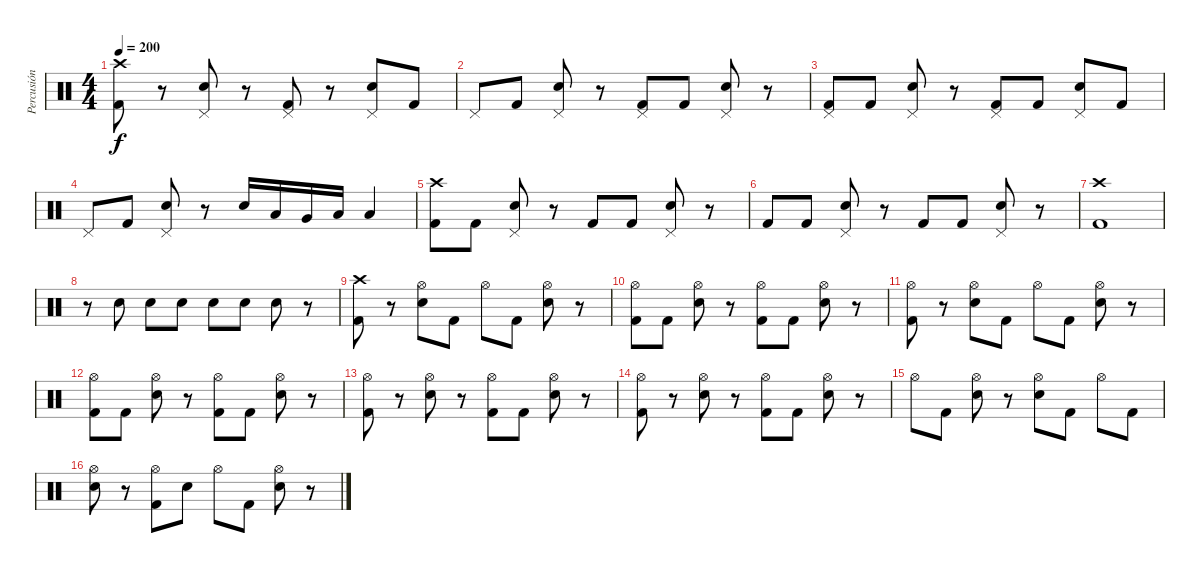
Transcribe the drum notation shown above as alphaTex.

\track ("Percusión" "Percusión") {instrument percussion}
\staff {score}
\articulation defaults
\ts (4 4)
\tempo 200
\clef neutral
\ks c
("Kick (hit) 2" "Crash high (hit)").8{dy f} r.8 ("Snare (hit) 2" "Pedal Hi-Hat (hit)").8 r.8 ("Kick (hit) 2" "Pedal Hi-Hat (hit)").8 r.8 ("Snare (hit) 2" "Pedal Hi-Hat (hit)").8 "Kick (hit) 2".8 |
"Pedal Hi-Hat (hit)".8 "Kick (hit) 2".8 ("Snare (hit) 2" "Pedal Hi-Hat (hit)").8 r.8 ("Kick (hit) 2" "Pedal Hi-Hat (hit)").8 "Kick (hit) 2".8 ("Snare (hit) 2" "Pedal Hi-Hat (hit)").8 r.8 |
("Kick (hit) 2" "Pedal Hi-Hat (hit)").8 "Kick (hit) 2".8 ("Snare (hit) 2" "Pedal Hi-Hat (hit)").8 r.8 ("Kick (hit) 2" "Pedal Hi-Hat (hit)").8 "Kick (hit) 2".8 ("Snare (hit) 2" "Pedal Hi-Hat (hit)").8 "Kick (hit) 2".8 |
"Pedal Hi-Hat (hit)".8 "Kick (hit) 2".8 ("Snare (hit) 2" "Pedal Hi-Hat (hit)").8 r.8 "Snare (hit) 2".16 "Low Tom (hit)".16 "Very Low Tom (hit)".16 "Low Floor Tom (hit)".16 "Low Floor Tom (hit)".4 |
("Kick (hit) 2" "Crash high (hit)").8 "Kick (hit) 2".8 ("Snare (hit) 2" "Pedal Hi-Hat (hit)").8 r.8 "Kick (hit) 2".8 "Kick (hit) 2".8 ("Snare (hit) 2" "Pedal Hi-Hat (hit)").8 r.8 |
"Kick (hit) 2".8 "Kick (hit) 2".8 ("Snare (hit) 2" "Pedal Hi-Hat (hit)").8 r.8 "Kick (hit) 2".8 "Kick (hit) 2".8 ("Snare (hit) 2" "Pedal Hi-Hat (hit)").8 r.8 |
("Kick (hit) 2" "Crash high (hit)").1 |
r.8 "Snare (hit) 2".8 "Snare (hit) 2".8 "Snare (hit) 2".8 "Snare (hit) 2".8 "Snare (hit) 2".8 "Snare (hit) 2".8 r.8 |
("Kick (hit) 2" "Crash high (hit)").8 r.8 ("Snare (hit) 2" "Hi-Hat (open)").8 "Kick (hit) 2".8 "Hi-Hat (open)".8 "Kick (hit) 2".8 ("Snare (hit) 2" "Hi-Hat (open)").8 r.8 |
("Kick (hit) 2" "Hi-Hat (open)").8 "Kick (hit) 2".8 ("Snare (hit) 2" "Hi-Hat (open)").8 r.8 ("Kick (hit) 2" "Hi-Hat (open)").8 "Kick (hit) 2".8 ("Snare (hit) 2" "Hi-Hat (open)").8 r.8 |
("Kick (hit) 2" "Hi-Hat (open)").8 r.8 ("Snare (hit) 2" "Hi-Hat (open)").8 "Kick (hit) 2".8 "Hi-Hat (open)".8 "Kick (hit) 2".8 ("Snare (hit) 2" "Hi-Hat (open)").8 r.8 |
("Kick (hit) 2" "Hi-Hat (open)").8 "Kick (hit) 2".8 ("Snare (hit) 2" "Hi-Hat (open)").8 r.8 ("Kick (hit) 2" "Hi-Hat (open)").8 "Kick (hit) 2".8 ("Snare (hit) 2" "Hi-Hat (open)").8 r.8 |
("Kick (hit) 2" "Hi-Hat (open)").8 r.8 ("Snare (hit) 2" "Hi-Hat (open)").8 r.8 ("Kick (hit) 2" "Hi-Hat (open)").8 "Kick (hit) 2".8 ("Snare (hit) 2" "Hi-Hat (open)").8 r.8 |
("Kick (hit) 2" "Hi-Hat (open)").8 r.8 ("Snare (hit) 2" "Hi-Hat (open)").8 r.8 ("Kick (hit) 2" "Hi-Hat (open)").8 "Kick (hit) 2".8 ("Snare (hit) 2" "Hi-Hat (open)").8 r.8 |
"Hi-Hat (open)".8 "Kick (hit) 2".8 ("Snare (hit) 2" "Hi-Hat (open)").8 r.8 ("Snare (hit) 2" "Hi-Hat (open)").8 "Kick (hit) 2".8 "Hi-Hat (open)".8 "Kick (hit) 2".8 |
("Snare (hit) 2" "Hi-Hat (open)").8 r.8 ("Kick (hit) 2" "Hi-Hat (open)").8 "Snare (hit) 2".8 "Hi-Hat (open)".8 "Kick (hit) 2".8 ("Snare (hit) 2" "Hi-Hat (open)").8 r.8
